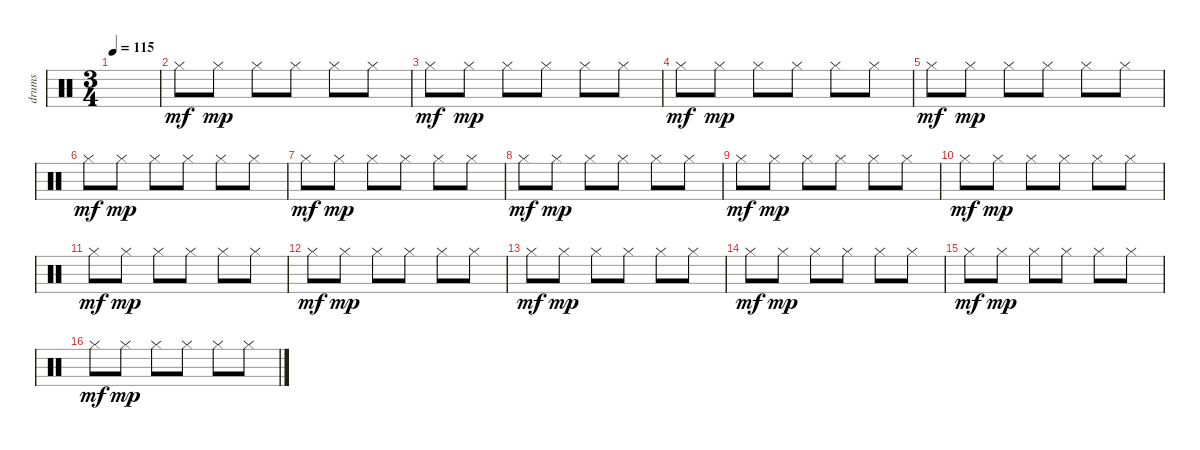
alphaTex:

\track ("drums" "drums") {instrument percussion}
\staff {score}
\articulation defaults
\ts (3 4)
\tempo 115
\clef neutral
\ks c
|
"Hi-Hat (closed)".8{dy mf} "Hi-Hat (closed)".8{dy mp} "Hi-Hat (closed)".8 "Hi-Hat (closed)".8 "Hi-Hat (closed)".8 "Hi-Hat (closed)".8 |
"Hi-Hat (closed)".8{dy mf} "Hi-Hat (closed)".8{dy mp} "Hi-Hat (closed)".8 "Hi-Hat (closed)".8 "Hi-Hat (closed)".8 "Hi-Hat (closed)".8 |
"Hi-Hat (closed)".8{dy mf} "Hi-Hat (closed)".8{dy mp} "Hi-Hat (closed)".8 "Hi-Hat (closed)".8 "Hi-Hat (closed)".8 "Hi-Hat (closed)".8 |
"Hi-Hat (closed)".8{dy mf} "Hi-Hat (closed)".8{dy mp} "Hi-Hat (closed)".8 "Hi-Hat (closed)".8 "Hi-Hat (closed)".8 "Hi-Hat (closed)".8 |
"Hi-Hat (closed)".8{dy mf} "Hi-Hat (closed)".8{dy mp} "Hi-Hat (closed)".8 "Hi-Hat (closed)".8 "Hi-Hat (closed)".8 "Hi-Hat (closed)".8 |
"Hi-Hat (closed)".8{dy mf} "Hi-Hat (closed)".8{dy mp} "Hi-Hat (closed)".8 "Hi-Hat (closed)".8 "Hi-Hat (closed)".8 "Hi-Hat (closed)".8 |
"Hi-Hat (closed)".8{dy mf} "Hi-Hat (closed)".8{dy mp} "Hi-Hat (closed)".8 "Hi-Hat (closed)".8 "Hi-Hat (closed)".8 "Hi-Hat (closed)".8 |
"Hi-Hat (closed)".8{dy mf} "Hi-Hat (closed)".8{dy mp} "Hi-Hat (closed)".8 "Hi-Hat (closed)".8 "Hi-Hat (closed)".8 "Hi-Hat (closed)".8 |
"Hi-Hat (closed)".8{dy mf} "Hi-Hat (closed)".8{dy mp} "Hi-Hat (closed)".8 "Hi-Hat (closed)".8 "Hi-Hat (closed)".8 "Hi-Hat (closed)".8 |
"Hi-Hat (closed)".8{dy mf} "Hi-Hat (closed)".8{dy mp} "Hi-Hat (closed)".8 "Hi-Hat (closed)".8 "Hi-Hat (closed)".8 "Hi-Hat (closed)".8 |
"Hi-Hat (closed)".8{dy mf} "Hi-Hat (closed)".8{dy mp} "Hi-Hat (closed)".8 "Hi-Hat (closed)".8 "Hi-Hat (closed)".8 "Hi-Hat (closed)".8 |
"Hi-Hat (closed)".8{dy mf} "Hi-Hat (closed)".8{dy mp} "Hi-Hat (closed)".8 "Hi-Hat (closed)".8 "Hi-Hat (closed)".8 "Hi-Hat (closed)".8 |
"Hi-Hat (closed)".8{dy mf} "Hi-Hat (closed)".8{dy mp} "Hi-Hat (closed)".8 "Hi-Hat (closed)".8 "Hi-Hat (closed)".8 "Hi-Hat (closed)".8 |
"Hi-Hat (closed)".8{dy mf} "Hi-Hat (closed)".8{dy mp} "Hi-Hat (closed)".8 "Hi-Hat (closed)".8 "Hi-Hat (closed)".8 "Hi-Hat (closed)".8 |
"Hi-Hat (closed)".8{dy mf} "Hi-Hat (closed)".8{dy mp} "Hi-Hat (closed)".8 "Hi-Hat (closed)".8 "Hi-Hat (closed)".8 "Hi-Hat (closed)".8
